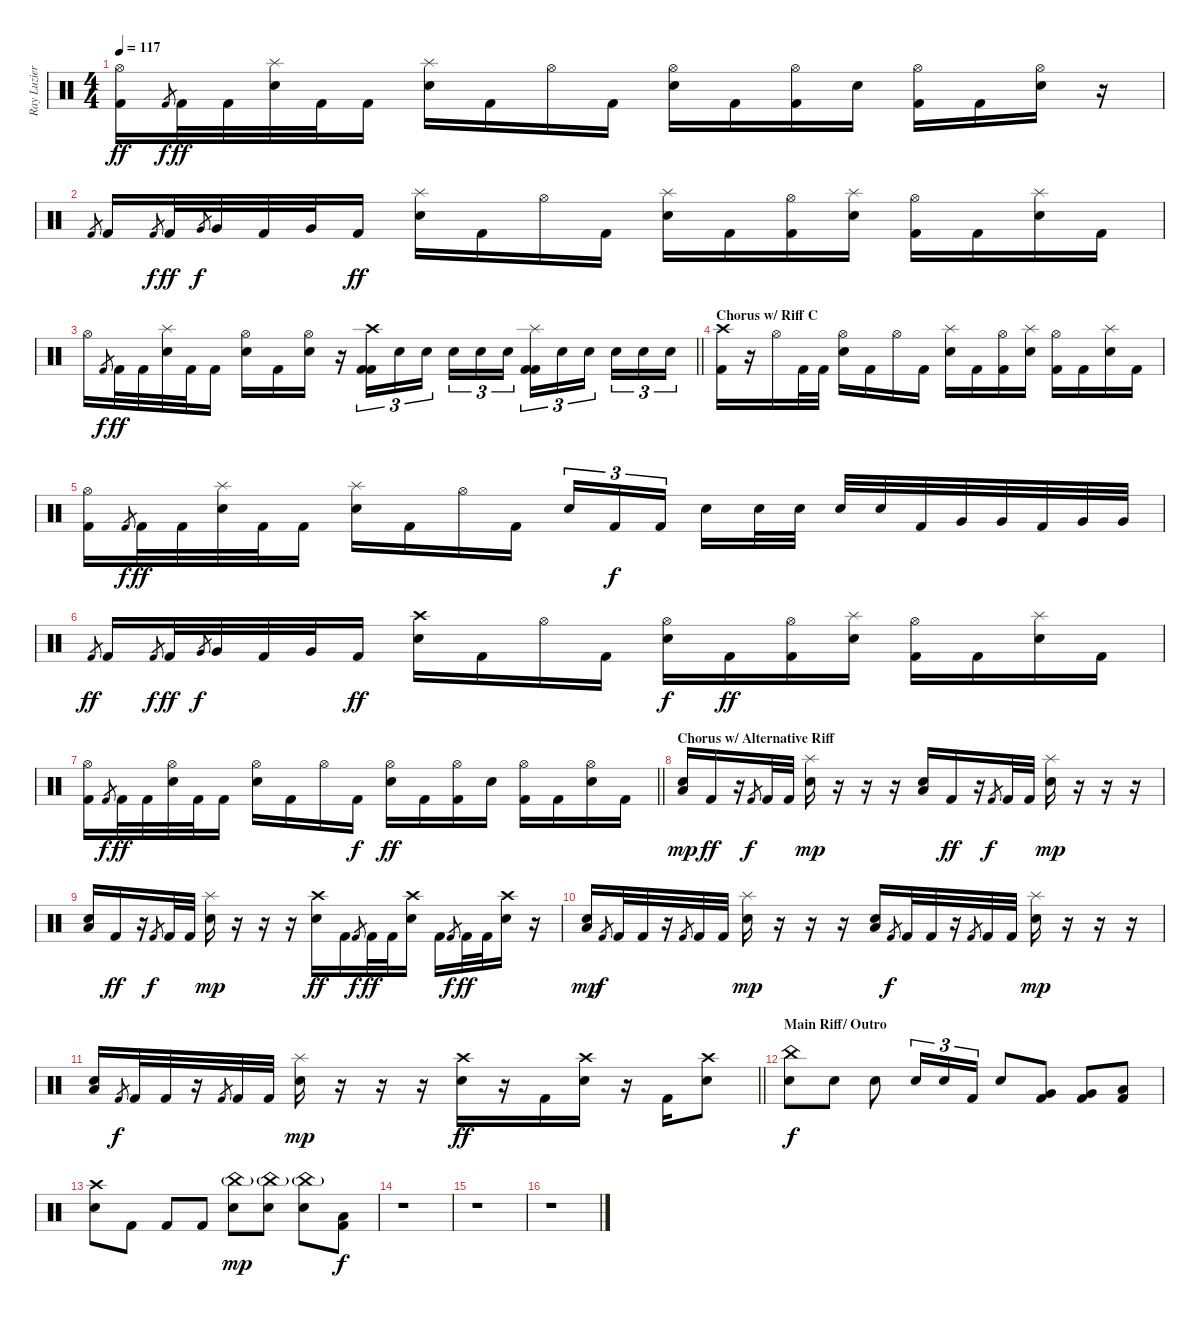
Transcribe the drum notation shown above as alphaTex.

\track ("Ray Luzier" "Ray Luzier") {instrument percussion}
\staff {score}
\articulation defaults
\ts (4 4)
\tempo 117
\clef neutral
\ks c
("Hi-Hat (open)" "Kick (hit) 2").16{dy ff} "Kick (hit) 2".8{gr dy f} "Kick (hit) 2".32{dy ff} "Kick (hit) 2".32 ("Splash (hit)" "Snare (hit) 2").32 "Kick (hit) 2".32 "Kick (hit) 2".16 ("Splash (hit)" "Snare (hit) 2").16 "Kick (hit) 2".16 "Hi-Hat (open)".16 "Kick (hit) 2".16 ("Hi-Hat (open)" "Snare (hit) 2").16 "Kick (hit) 2".16 ("Hi-Hat (open)" "Kick (hit) 2").16 "Snare (hit) 2".16 ("Hi-Hat (open)" "Kick (hit) 2").16 "Kick (hit) 2".16 ("Hi-Hat (open)" "Snare (hit) 2").16 r.16 |
"Kick (hit) 2".8{gr} "Kick (hit) 2".16 "Kick (hit) 2".8{gr dy f} "Kick (hit) 2".32{dy ff} "Very Low Tom (hit)".8{gr dy f} "Very Low Tom (hit)".32 "Kick (hit) 2".32 "Very Low Tom (hit)".32 "Kick (hit) 2".16{dy ff} ("Splash (hit)" "Snare (hit) 2").16 "Kick (hit) 2".16 "Hi-Hat (open)".16 "Kick (hit) 2".16 ("Splash (hit)" "Snare (hit) 2").16 "Kick (hit) 2".16 ("Hi-Hat (open)" "Kick (hit) 2").16 ("Splash (hit)" "Snare (hit) 2").16 ("Hi-Hat (open)" "Kick (hit) 2").16 "Kick (hit) 2".16 ("Splash (hit)" "Snare (hit) 2").16 "Kick (hit) 2".16 |
\barLineRight lightlight "Hi-Hat (open)".16 "Kick (hit) 2".8{gr dy f} "Kick (hit) 2".32{dy ff} "Kick (hit) 2".32
("Splash (hit)" "Snare (hit) 2").32 "Kick (hit) 2".32 "Kick (hit) 2".16 ("Hi-Hat (open)" "Snare (hit) 2").16 "Kick (hit) 2".16 ("Hi-Hat (open)" "Snare (hit) 2").16 r.16 ("Crash high (hit)" "Kick (hit) 2" "Kick (hit) 2").16{tu (3 2)} "Snare (hit) 2".16{tu (3 2)} "Snare (hit) 2".16{tu (3 2) beam splitsecondary} "Snare (hit) 2".16{tu (3 2)} "Snare (hit) 2".16{tu (3 2)} "Snare (hit) 2".16{tu (3 2)} ("Splash (hit)" "Kick (hit) 2" "Kick (hit) 2").16{tu (3 2)} "Snare (hit) 2".16{tu (3 2)} "Snare (hit) 2".16{tu (3 2) beam splitsecondary} "Snare (hit) 2".16{tu (3 2)} "Snare (hit) 2".16{tu (3 2)} "Snare (hit) 2".16{tu (3 2)} |
\section ("" "Chorus w/ Riff C")
("Crash high (hit)" "Kick (hit) 2").16 r.16 "Hi-Hat (open)".16 "Kick (hit) 2".32 "Kick (hit) 2".32 ("Hi-Hat (open)" "Snare (hit) 2").16 "Kick (hit) 2".16 "Hi-Hat (open)".16 "Kick (hit) 2".16 ("Splash (hit)" "Snare (hit) 2").16 "Kick (hit) 2".16 ("Hi-Hat (open)" "Kick (hit) 2").16 ("Splash (hit)" "Snare (hit) 2").16 ("Hi-Hat (open)" "Kick (hit) 2").16 "Kick (hit) 2".16 ("Splash (hit)" "Snare (hit) 2").16 "Kick (hit) 2".16 |
("Hi-Hat (open)" "Kick (hit) 2").16 "Kick (hit) 2".8{gr dy f} "Kick (hit) 2".32{dy ff} "Kick (hit) 2".32 ("Splash (hit)" "Snare (hit) 2").32 "Kick (hit) 2".32 "Kick (hit) 2".16 ("Splash (hit)" "Snare (hit) 2").16 "Kick (hit) 2".16 "Hi-Hat (open)".16 "Kick (hit) 2".16 "Snare (hit) 2".16{tu (3 2)} "Kick (hit) 2".16{tu (3 2) dy f} "Kick (hit) 2".16{tu (3 2) beam splitsecondary} "Snare (hit) 2".16 "Snare (hit) 2".32 "Snare (hit) 2".32 "Snare (hit) 2".32 "Snare (hit) 2".32 "Kick (hit) 2".32 "Very Low Tom (hit)".32 "Very Low Tom (hit)".32 "Kick (hit) 2".32 "Very Low Tom (hit)".32 "Very Low Tom (hit)".32 |
"Kick (hit) 2".8{gr dy ff} "Kick (hit) 2".16 "Kick (hit) 2".8{gr dy f} "Kick (hit) 2".32{dy ff} "Very Low Tom (hit)".8{gr dy f} "Very Low Tom (hit)".32 "Kick (hit) 2".32 "Very Low Tom (hit)".32 "Kick (hit) 2".16{dy ff} ("Crash high (hit)" "Snare (hit) 2").16 "Kick (hit) 2".16 "Hi-Hat (open)".16 "Kick (hit) 2".16 ("Hi-Hat (open)" "Snare (hit) 2").16{dy f} "Kick (hit) 2".16{dy ff} ("Hi-Hat (open)" "Kick (hit) 2").16 ("Splash (hit)" "Snare (hit) 2").16 ("Hi-Hat (open)" "Kick (hit) 2").16 "Kick (hit) 2".16 ("Splash (hit)" "Snare (hit) 2").16 "Kick (hit) 2".16 |
\barLineRight lightlight
("Hi-Hat (open)" "Kick (hit) 2").16 "Kick (hit) 2".8{gr dy f} "Kick (hit) 2".32{dy ff} "Kick (hit) 2".32 ("Hi-Hat (open)" "Snare (hit) 2").32 "Kick (hit) 2".32 "Kick (hit) 2".16 ("Hi-Hat (open)" "Snare (hit) 2").16 "Kick (hit) 2".16 "Hi-Hat (open)".16 "Kick (hit) 2".16{dy f} ("Hi-Hat (open)" "Snare (hit) 2").16{dy ff} "Kick (hit) 2".16 ("Hi-Hat (open)" "Kick (hit) 2").16 "Snare (hit) 2".16 ("Hi-Hat (open)" "Kick (hit) 2").16 "Kick (hit) 2".16 ("Hi-Hat (open)" "Snare (hit) 2").16 "Kick (hit) 2".16 |
\section ("" "Chorus w/ Alternative Riff")
("Low Floor Tom (hit)" "Snare (hit) 2").16{dy mp} "Kick (hit) 2".16{dy ff} r.16 "Kick (hit) 2".8{gr dy f} "Kick (hit) 2".32 "Kick (hit) 2".32 ("Splash (hit)" "Snare (hit) 2").16{dy mp} r.16 r.16 r.16 ("Low Floor Tom (hit)" "Snare (hit) 2").16 "Kick (hit) 2".16{dy ff} r.16 "Kick (hit) 2".8{gr dy f} "Kick (hit) 2".32 "Kick (hit) 2".32 ("Splash (hit)" "Snare (hit) 2").16{dy mp} r.16 r.16 r.16 |
("Low Floor Tom (hit)" "Snare (hit) 2").16 "Kick (hit) 2".16{dy ff} r.16 "Kick (hit) 2".8{gr dy f} "Kick (hit) 2".32 "Kick (hit) 2".32 ("Splash (hit)" "Snare (hit) 2").16{dy mp} r.16 r.16 r.16 ("Crash high (hit)" "Snare (hit) 2").16{dy ff} "Kick (hit) 2".16 "Kick (hit) 2".8{gr dy f} "Kick (hit) 2".32{dy ff} "Kick (hit) 2".32 ("Crash high (hit)" "Snare (hit) 2").16 "Kick (hit) 2".16 "Kick (hit) 2".8{gr dy f} "Kick (hit) 2".32{dy ff} "Kick (hit) 2".32 ("Crash high (hit)" "Snare (hit) 2").16 r.16 |
("Low Floor Tom (hit)" "Snare (hit) 2").16{dy mp} "Kick (hit) 2".8{gr dy f} "Kick (hit) 2".32 "Kick (hit) 2".32 r.16 "Kick (hit) 2".8{gr} "Kick (hit) 2".32 "Kick (hit) 2".32 ("Splash (hit)" "Snare (hit) 2").16{dy mp} r.16 r.16 r.16 ("Low Floor Tom (hit)" "Snare (hit) 2").16 "Kick (hit) 2".8{gr dy f} "Kick (hit) 2".32 "Kick (hit) 2".32 r.16 "Kick (hit) 2".8{gr} "Kick (hit) 2".32 "Kick (hit) 2".32 ("Splash (hit)" "Snare (hit) 2").16{dy mp} r.16 r.16 r.16 |
\barLineRight lightlight
("Low Floor Tom (hit)" "Snare (hit) 2").16 "Kick (hit) 2".8{gr dy f} "Kick (hit) 2".32 "Kick (hit) 2".32 r.16 "Kick (hit) 2".8{gr} "Kick (hit) 2".32 "Kick (hit) 2".32 ("Splash (hit)" "Snare (hit) 2").16{dy mp} r.16 r.16 r.16 ("Crash high (hit)" "Snare (hit) 2").16{dy ff} r.16 "Kick (hit) 2".16 ("Crash high (hit)" "Snare (hit) 2").16 r.16 "Kick (hit) 2".16 ("Crash high (hit)" "Snare (hit) 2").8 |
\section ("" "Main Riff/ Outro")
("China (hit)" "Snare (hit) 2").8{dy f} "Snare (hit) 2".8 "Snare (hit) 2".8 "Snare (hit) 2".16{tu (3 2)} "Snare (hit) 2".16{tu (3 2)} "Kick (hit) 2".16{tu (3 2)} "Snare (hit) 2".8 ("Very Low Tom (hit)" "Kick (hit) 2").8 ("Very Low Tom (hit)" "Kick (hit) 2").8 ("Low Floor Tom (hit)" "Kick (hit) 2").8 |
("Crash high (hit)" "Snare (hit) 2").8 "Kick (hit) 2".8 "Kick (hit) 2".8 "Kick (hit) 2".8 ("China (hit)"{g} "Snare (hit) 2").8{dy mp} ("China (hit)"{g} "Snare (hit) 2").8 ("China (hit)"{g} "Snare (hit) 2").8 ("Low Floor Tom (hit)" "Kick (hit) 2").8{dy f} |
r.1 |
r.1 |
r.1
